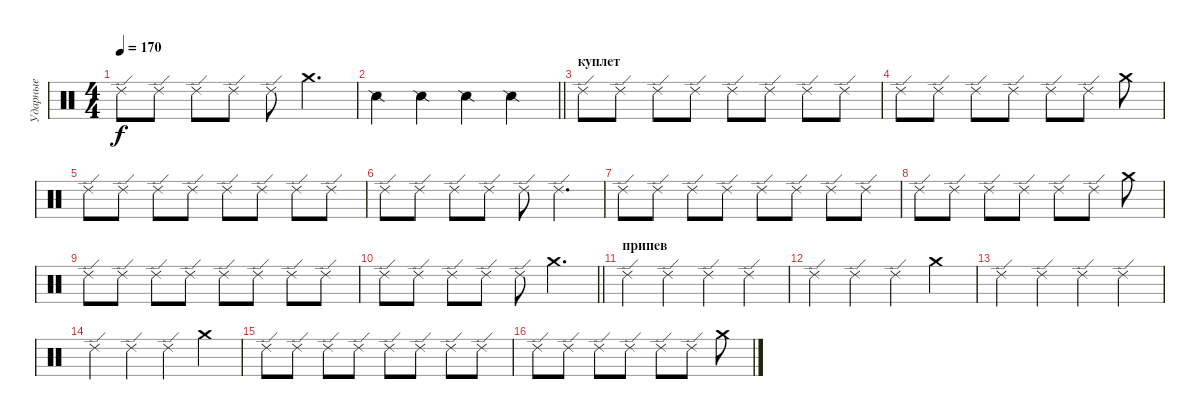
\track ("Ударные" "Ударные") {instrument percussion}
\staff {score}
\articulation defaults
\ts (4 4)
\tempo 170
\clef neutral
\ks c "Ride (edge) 2".8{dy f} "Ride (edge) 2".8 "Ride (edge) 2".8 "Ride (edge) 2".8 "Ride (edge) 2".8 "Crash medium (hit)".4{d}
|
\barLineRight lightlight "Snare (side stick) 2".4 "Snare (side stick) 2".4 "Snare (side stick) 2".4 "Snare (side stick) 2".4
|
\section ("" "куплет")
"Ride (edge) 2".8 "Ride (edge) 2".8 "Ride (edge) 2".8 "Ride (edge) 2".8 "Ride (edge) 2".8 "Ride (edge) 2".8 "Ride (edge) 2".8 "Ride (edge) 2".8 |
"Ride (edge) 2".8 "Ride (edge) 2".8 "Ride (edge) 2".8 "Ride (edge) 2".8 "Ride (edge) 2".8 "Ride (edge) 2".8 "Crash medium (hit)".8 |
"Ride (edge) 2".8 "Ride (edge) 2".8 "Ride (edge) 2".8 "Ride (edge) 2".8 "Ride (edge) 2".8 "Ride (edge) 2".8 "Ride (edge) 2".8 "Ride (edge) 2".8 |
"Ride (edge) 2".8 "Ride (edge) 2".8 "Ride (edge) 2".8 "Ride (edge) 2".8 "Ride (edge) 2".8 "Ride (edge) 2".4{d} |
"Ride (edge) 2".8 "Ride (edge) 2".8 "Ride (edge) 2".8 "Ride (edge) 2".8 "Ride (edge) 2".8 "Ride (edge) 2".8 "Ride (edge) 2".8 "Ride (edge) 2".8 |
"Ride (edge) 2".8 "Ride (edge) 2".8 "Ride (edge) 2".8 "Ride (edge) 2".8 "Ride (edge) 2".8 "Ride (edge) 2".8 "Crash medium (hit)".8 |
"Ride (edge) 2".8 "Ride (edge) 2".8 "Ride (edge) 2".8 "Ride (edge) 2".8 "Ride (edge) 2".8 "Ride (edge) 2".8 "Ride (edge) 2".8 "Ride (edge) 2".8 |
\barLineRight lightlight "Ride (edge) 2".8 "Ride (edge) 2".8 "Ride (edge) 2".8 "Ride (edge) 2".8 "Ride (edge) 2".8 "Crash medium (hit)".4{d}
|
\section ("" "припев")
"Ride (edge) 2".4 "Ride (edge) 2".4 "Ride (edge) 2".4 "Ride (edge) 2".4 |
"Ride (edge) 2".4 "Ride (edge) 2".4 "Ride (edge) 2".4 "Crash medium (hit)".4 |
"Ride (edge) 2".4 "Ride (edge) 2".4 "Ride (edge) 2".4 "Ride (edge) 2".4 |
"Ride (edge) 2".4 "Ride (edge) 2".4 "Ride (edge) 2".4 "Crash medium (hit)".4 |
"Ride (edge) 2".8 "Ride (edge) 2".8 "Ride (edge) 2".8 "Ride (edge) 2".8 "Ride (edge) 2".8 "Ride (edge) 2".8 "Ride (edge) 2".8 "Ride (edge) 2".8 |
"Ride (edge) 2".8 "Ride (edge) 2".8 "Ride (edge) 2".8 "Ride (edge) 2".8 "Ride (edge) 2".8 "Ride (edge) 2".8 "Crash medium (hit)".8
